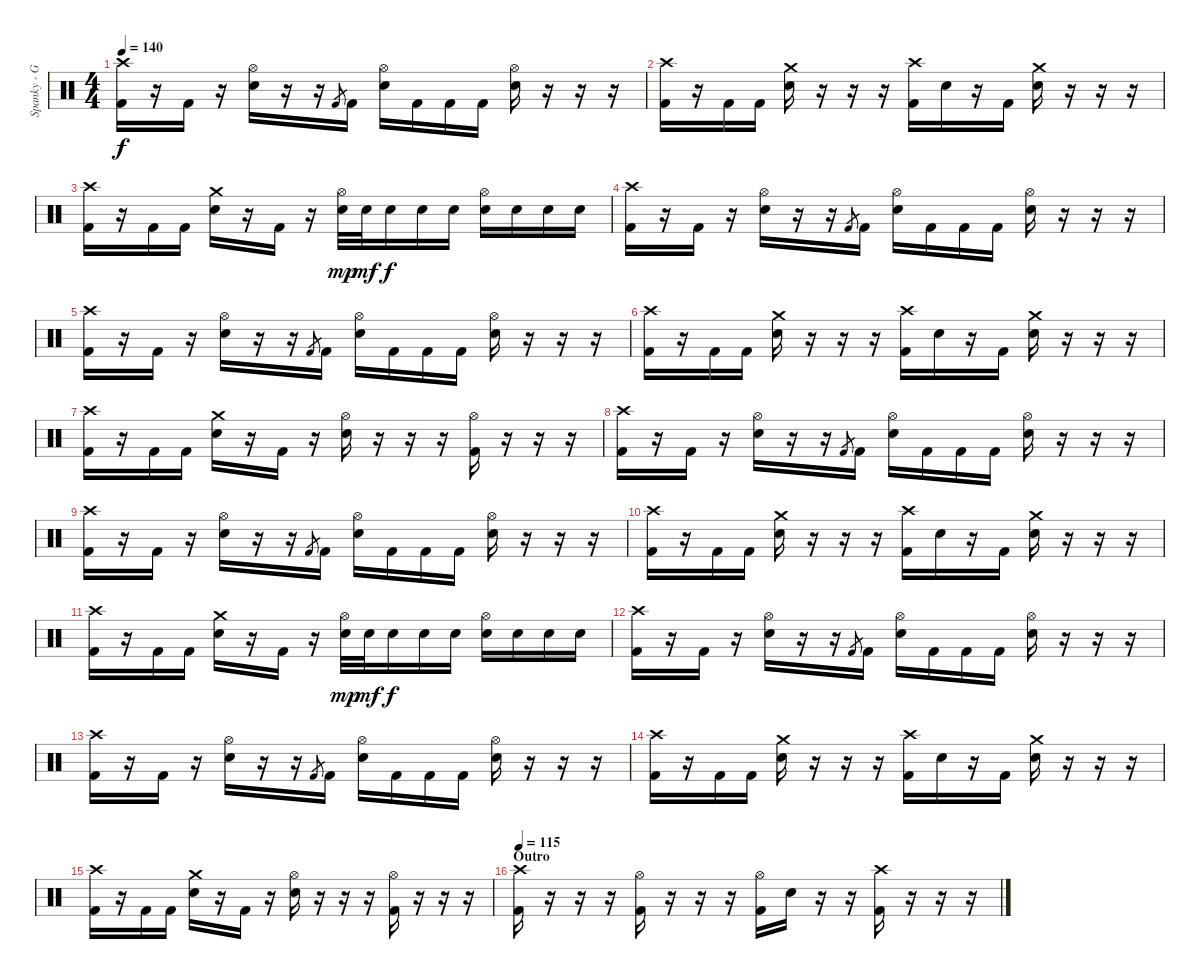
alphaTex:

\track ("Spanky - G (Ex-drummer)" "Spanky - G") {instrument percussion}
\staff {score}
\articulation defaults
\ts (4 4)
\tempo 140
\clef neutral
\ks c
("Crash high (hit)" "Kick (hit) 2").16{dy f} r.16 "Kick (hit) 2".16 r.16 ("Hi-Hat (open)" "Electric Snare (hit)").16 r.16 r.16 "Kick (hit) 2".8{gr} "Kick (hit) 2".16 ("Hi-Hat (open)" "Electric Snare (hit)").16 "Kick (hit) 2".16 "Kick (hit) 2".16 "Kick (hit) 2".16 ("Hi-Hat (open)" "Electric Snare (hit)").16 r.16 r.16 r.16 |
("Crash high (hit)" "Kick (hit) 2").16 r.16 "Kick (hit) 2".16 "Kick (hit) 2".16 ("Crash medium (hit)" "Electric Snare (hit)").16 r.16 r.16 r.16 ("Crash high (hit)" "Kick (hit) 2").16 "Electric Snare (hit)".16 r.16 "Kick (hit) 2".16 ("Crash medium (hit)" "Electric Snare (hit)").16 r.16 r.16 r.16 |
("Crash high (hit)" "Kick (hit) 2").16 r.16 "Kick (hit) 2".16 "Kick (hit) 2".16 ("Crash medium (hit)" "Electric Snare (hit)").16 r.16 "Kick (hit) 2".16 r.16 ("Hi-Hat (open)" "Electric Snare (hit)").32{dy mp} "Electric Snare (hit)".32{dy mf} "Electric Snare (hit)".16{dy f} "Electric Snare (hit)".16 "Electric Snare (hit)".16 ("Hi-Hat (open)" "Electric Snare (hit)").16 "Electric Snare (hit)".16 "Electric Snare (hit)".16 "Electric Snare (hit)".16 |
("Crash high (hit)" "Kick (hit) 2").16 r.16 "Kick (hit) 2".16 r.16 ("Hi-Hat (open)" "Electric Snare (hit)").16 r.16 r.16 "Kick (hit) 2".8{gr} "Kick (hit) 2".16 ("Hi-Hat (open)" "Electric Snare (hit)").16 "Kick (hit) 2".16 "Kick (hit) 2".16 "Kick (hit) 2".16 ("Hi-Hat (open)" "Electric Snare (hit)").16 r.16 r.16 r.16 |
("Crash high (hit)" "Kick (hit) 2").16 r.16 "Kick (hit) 2".16 r.16 ("Hi-Hat (open)" "Electric Snare (hit)").16 r.16 r.16 "Kick (hit) 2".8{gr} "Kick (hit) 2".16 ("Hi-Hat (open)" "Electric Snare (hit)").16 "Kick (hit) 2".16 "Kick (hit) 2".16 "Kick (hit) 2".16 ("Hi-Hat (open)" "Electric Snare (hit)").16 r.16 r.16 r.16 |
("Crash high (hit)" "Kick (hit) 2").16 r.16 "Kick (hit) 2".16 "Kick (hit) 2".16 ("Crash medium (hit)" "Electric Snare (hit)").16 r.16 r.16 r.16 ("Crash high (hit)" "Kick (hit) 2").16 "Electric Snare (hit)".16 r.16 "Kick (hit) 2".16 ("Crash medium (hit)" "Electric Snare (hit)").16 r.16 r.16 r.16 |
("Crash high (hit)" "Kick (hit) 2").16 r.16 "Kick (hit) 2".16 "Kick (hit) 2".16 ("Crash medium (hit)" "Electric Snare (hit)").16 r.16 "Kick (hit) 2".16 r.16 ("Hi-Hat (open)" "Electric Snare (hit)").16 r.16 r.16 r.16 ("Hi-Hat (open)" "Kick (hit) 2").16 r.16 r.16 r.16 |
("Crash high (hit)" "Kick (hit) 2").16 r.16 "Kick (hit) 2".16 r.16 ("Hi-Hat (open)" "Electric Snare (hit)").16 r.16 r.16 "Kick (hit) 2".8{gr} "Kick (hit) 2".16 ("Hi-Hat (open)" "Electric Snare (hit)").16 "Kick (hit) 2".16 "Kick (hit) 2".16 "Kick (hit) 2".16 ("Hi-Hat (open)" "Electric Snare (hit)").16 r.16 r.16 r.16 |
("Crash high (hit)" "Kick (hit) 2").16 r.16 "Kick (hit) 2".16 r.16 ("Hi-Hat (open)" "Electric Snare (hit)").16 r.16 r.16 "Kick (hit) 2".8{gr} "Kick (hit) 2".16 ("Hi-Hat (open)" "Electric Snare (hit)").16 "Kick (hit) 2".16 "Kick (hit) 2".16 "Kick (hit) 2".16 ("Hi-Hat (open)" "Electric Snare (hit)").16 r.16 r.16 r.16 |
("Crash high (hit)" "Kick (hit) 2").16 r.16 "Kick (hit) 2".16 "Kick (hit) 2".16 ("Crash medium (hit)" "Electric Snare (hit)").16 r.16 r.16 r.16 ("Crash high (hit)" "Kick (hit) 2").16 "Electric Snare (hit)".16 r.16 "Kick (hit) 2".16 ("Crash medium (hit)" "Electric Snare (hit)").16 r.16 r.16 r.16 |
("Crash high (hit)" "Kick (hit) 2").16 r.16 "Kick (hit) 2".16 "Kick (hit) 2".16 ("Crash medium (hit)" "Electric Snare (hit)").16 r.16 "Kick (hit) 2".16 r.16 ("Hi-Hat (open)" "Electric Snare (hit)").32{dy mp} "Electric Snare (hit)".32{dy mf} "Electric Snare (hit)".16{dy f} "Electric Snare (hit)".16 "Electric Snare (hit)".16 ("Hi-Hat (open)" "Electric Snare (hit)").16 "Electric Snare (hit)".16 "Electric Snare (hit)".16 "Electric Snare (hit)".16 |
("Crash high (hit)" "Kick (hit) 2").16 r.16 "Kick (hit) 2".16 r.16 ("Hi-Hat (open)" "Electric Snare (hit)").16 r.16 r.16 "Kick (hit) 2".8{gr} "Kick (hit) 2".16 ("Hi-Hat (open)" "Electric Snare (hit)").16 "Kick (hit) 2".16 "Kick (hit) 2".16 "Kick (hit) 2".16 ("Hi-Hat (open)" "Electric Snare (hit)").16 r.16 r.16 r.16 |
("Crash high (hit)" "Kick (hit) 2").16 r.16 "Kick (hit) 2".16 r.16 ("Hi-Hat (open)" "Electric Snare (hit)").16 r.16 r.16 "Kick (hit) 2".8{gr} "Kick (hit) 2".16 ("Hi-Hat (open)" "Electric Snare (hit)").16 "Kick (hit) 2".16 "Kick (hit) 2".16 "Kick (hit) 2".16 ("Hi-Hat (open)" "Electric Snare (hit)").16 r.16 r.16 r.16 |
("Crash high (hit)" "Kick (hit) 2").16 r.16 "Kick (hit) 2".16 "Kick (hit) 2".16 ("Crash medium (hit)" "Electric Snare (hit)").16 r.16 r.16 r.16 ("Crash high (hit)" "Kick (hit) 2").16 "Electric Snare (hit)".16 r.16 "Kick (hit) 2".16 ("Crash medium (hit)" "Electric Snare (hit)").16 r.16 r.16 r.16 |
("Crash high (hit)" "Kick (hit) 2").16 r.16 "Kick (hit) 2".16 "Kick (hit) 2".16 ("Crash medium (hit)" "Electric Snare (hit)").16 r.16 "Kick (hit) 2".16 r.16 ("Hi-Hat (open)" "Electric Snare (hit)").16 r.16 r.16 r.16 ("Hi-Hat (open)" "Kick (hit) 2").16 r.16 r.16 r.16 |
\section ("" "Outro")
\tempo 115
("Crash high (hit)" "Kick (hit) 2").16 r.16 r.16 r.16 ("Hi-Hat (open)" "Kick (hit) 2").16 r.16 r.16 r.16 ("Hi-Hat (open)" "Kick (hit) 2").16 "Electric Snare (hit)".16 r.16 r.16 ("Crash high (hit)" "Kick (hit) 2").16 r.16 r.16 r.16
